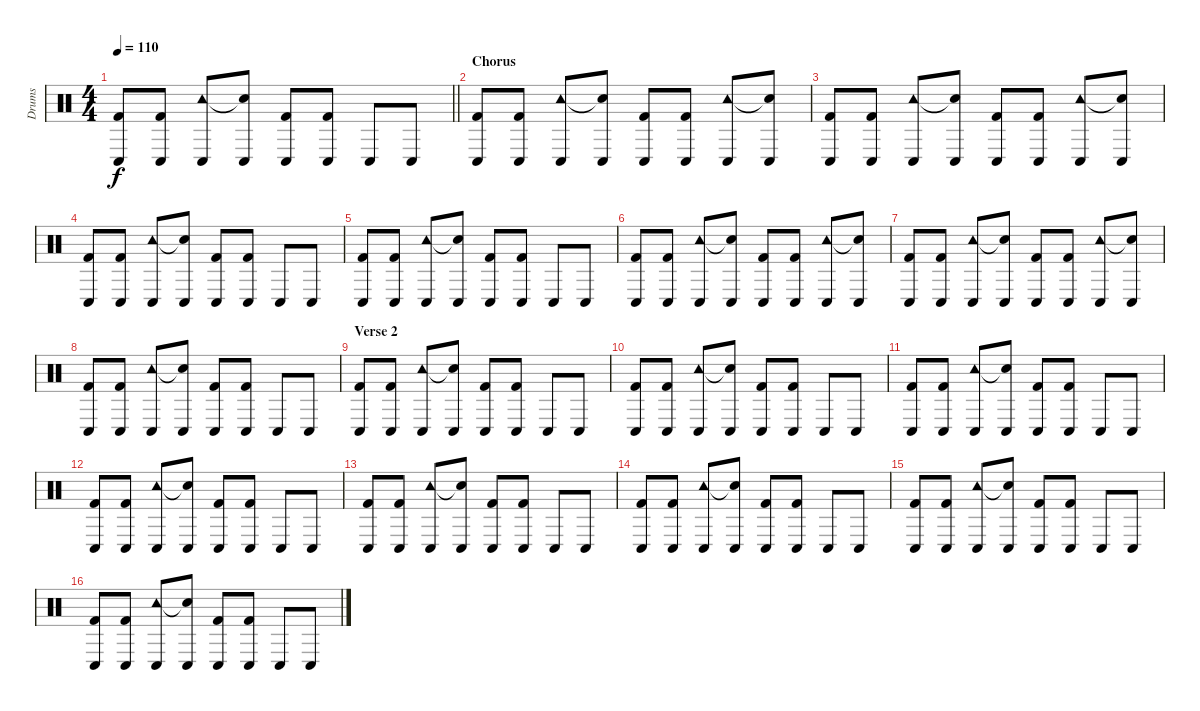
\track ("Drums" "Drums") {instrument percussion}
\staff {score}
\articulation defaults
\ts (4 4)
\tempo 110
\clef neutral
\barLineRight lightlight
\ks c
("Conga low (hit)" "Kick (hit) 2").8{dy f} ("Conga low (hit)" "Kick (hit) 2").8 ("Tambourine (hit)" "Conga low (hit)").8 ("Snare (hit)"{t} "Conga low (hit)").8 ("Conga low (hit)" "Kick (hit) 2").8 ("Conga low (hit)" "Kick (hit) 2").8 "Conga low (hit)".8 "Conga low (hit)".8 |
\section ("" "Chorus")
("Conga low (hit)" "Kick (hit) 2").8 ("Conga low (hit)" "Kick (hit) 2").8 ("Tambourine (hit)" "Conga low (hit)").8 ("Snare (hit)"{t} "Conga low (hit)").8 ("Conga low (hit)" "Kick (hit) 2").8 ("Conga low (hit)" "Kick (hit) 2").8 ("Tambourine (hit)" "Conga low (hit)").8 ("Snare (hit)"{t} "Conga low (hit)").8 |
("Conga low (hit)" "Kick (hit) 2").8 ("Conga low (hit)" "Kick (hit) 2").8 ("Tambourine (hit)" "Conga low (hit)").8 ("Snare (hit)"{t} "Conga low (hit)").8 ("Conga low (hit)" "Kick (hit) 2").8 ("Conga low (hit)" "Kick (hit) 2").8 ("Tambourine (hit)" "Conga low (hit)").8 ("Snare (hit)"{t} "Conga low (hit)").8 |
("Conga low (hit)" "Kick (hit) 2").8 ("Conga low (hit)" "Kick (hit) 2").8 ("Tambourine (hit)" "Conga low (hit)").8 ("Snare (hit)"{t} "Conga low (hit)").8 ("Conga low (hit)" "Kick (hit) 2").8 ("Conga low (hit)" "Kick (hit) 2").8 "Conga low (hit)".8 "Conga low (hit)".8 |
("Conga low (hit)" "Kick (hit) 2").8 ("Conga low (hit)" "Kick (hit) 2").8 ("Tambourine (hit)" "Conga low (hit)").8 ("Snare (hit)"{t} "Conga low (hit)").8 ("Conga low (hit)" "Kick (hit) 2").8 ("Conga low (hit)" "Kick (hit) 2").8 "Conga low (hit)".8 "Conga low (hit)".8 |
("Conga low (hit)" "Kick (hit) 2").8 ("Conga low (hit)" "Kick (hit) 2").8 ("Tambourine (hit)" "Conga low (hit)").8 ("Snare (hit)"{t} "Conga low (hit)").8 ("Conga low (hit)" "Kick (hit) 2").8 ("Conga low (hit)" "Kick (hit) 2").8 ("Tambourine (hit)" "Conga low (hit)").8 ("Snare (hit)"{t} "Conga low (hit)").8 |
("Conga low (hit)" "Kick (hit) 2").8 ("Conga low (hit)" "Kick (hit) 2").8 ("Tambourine (hit)" "Conga low (hit)").8 ("Snare (hit)"{t} "Conga low (hit)").8 ("Conga low (hit)" "Kick (hit) 2").8 ("Conga low (hit)" "Kick (hit) 2").8 ("Tambourine (hit)" "Conga low (hit)").8 ("Snare (hit)"{t} "Conga low (hit)").8 |
("Conga low (hit)" "Kick (hit) 2").8 ("Conga low (hit)" "Kick (hit) 2").8 ("Tambourine (hit)" "Conga low (hit)").8 ("Snare (hit)"{t} "Conga low (hit)").8 ("Conga low (hit)" "Kick (hit) 2").8 ("Conga low (hit)" "Kick (hit) 2").8 "Conga low (hit)".8 "Conga low (hit)".8 |
\section ("" "Verse 2")
("Conga low (hit)" "Kick (hit) 2").8 ("Conga low (hit)" "Kick (hit) 2").8 ("Tambourine (hit)" "Conga low (hit)").8 ("Snare (hit)"{t} "Conga low (hit)").8 ("Conga low (hit)" "Kick (hit) 2").8 ("Conga low (hit)" "Kick (hit) 2").8 "Conga low (hit)".8 "Conga low (hit)".8 |
("Conga low (hit)" "Kick (hit) 2").8 ("Conga low (hit)" "Kick (hit) 2").8 ("Tambourine (hit)" "Conga low (hit)").8 ("Snare (hit)"{t} "Conga low (hit)").8 ("Conga low (hit)" "Kick (hit) 2").8 ("Conga low (hit)" "Kick (hit) 2").8 "Conga low (hit)".8 "Conga low (hit)".8 |
("Conga low (hit)" "Kick (hit) 2").8 ("Conga low (hit)" "Kick (hit) 2").8 ("Tambourine (hit)" "Conga low (hit)").8 ("Snare (hit)"{t} "Conga low (hit)").8 ("Conga low (hit)" "Kick (hit) 2").8 ("Conga low (hit)" "Kick (hit) 2").8 "Conga low (hit)".8 "Conga low (hit)".8 |
("Conga low (hit)" "Kick (hit) 2").8 ("Conga low (hit)" "Kick (hit) 2").8 ("Tambourine (hit)" "Conga low (hit)").8 ("Snare (hit)"{t} "Conga low (hit)").8 ("Conga low (hit)" "Kick (hit) 2").8 ("Conga low (hit)" "Kick (hit) 2").8 "Conga low (hit)".8 "Conga low (hit)".8 |
("Conga low (hit)" "Kick (hit) 2").8 ("Conga low (hit)" "Kick (hit) 2").8 ("Tambourine (hit)" "Conga low (hit)").8 ("Snare (hit)"{t} "Conga low (hit)").8 ("Conga low (hit)" "Kick (hit) 2").8 ("Conga low (hit)" "Kick (hit) 2").8 "Conga low (hit)".8 "Conga low (hit)".8 |
("Conga low (hit)" "Kick (hit) 2").8 ("Conga low (hit)" "Kick (hit) 2").8 ("Tambourine (hit)" "Conga low (hit)").8 ("Snare (hit)"{t} "Conga low (hit)").8 ("Conga low (hit)" "Kick (hit) 2").8 ("Conga low (hit)" "Kick (hit) 2").8 "Conga low (hit)".8 "Conga low (hit)".8 |
("Conga low (hit)" "Kick (hit) 2").8 ("Conga low (hit)" "Kick (hit) 2").8 ("Tambourine (hit)" "Conga low (hit)").8 ("Snare (hit)"{t} "Conga low (hit)").8 ("Conga low (hit)" "Kick (hit) 2").8 ("Conga low (hit)" "Kick (hit) 2").8 "Conga low (hit)".8 "Conga low (hit)".8 |
("Conga low (hit)" "Kick (hit) 2").8 ("Conga low (hit)" "Kick (hit) 2").8 ("Tambourine (hit)" "Conga low (hit)").8 ("Snare (hit)"{t} "Conga low (hit)").8 ("Conga low (hit)" "Kick (hit) 2").8 ("Conga low (hit)" "Kick (hit) 2").8 "Conga low (hit)".8 "Conga low (hit)".8
